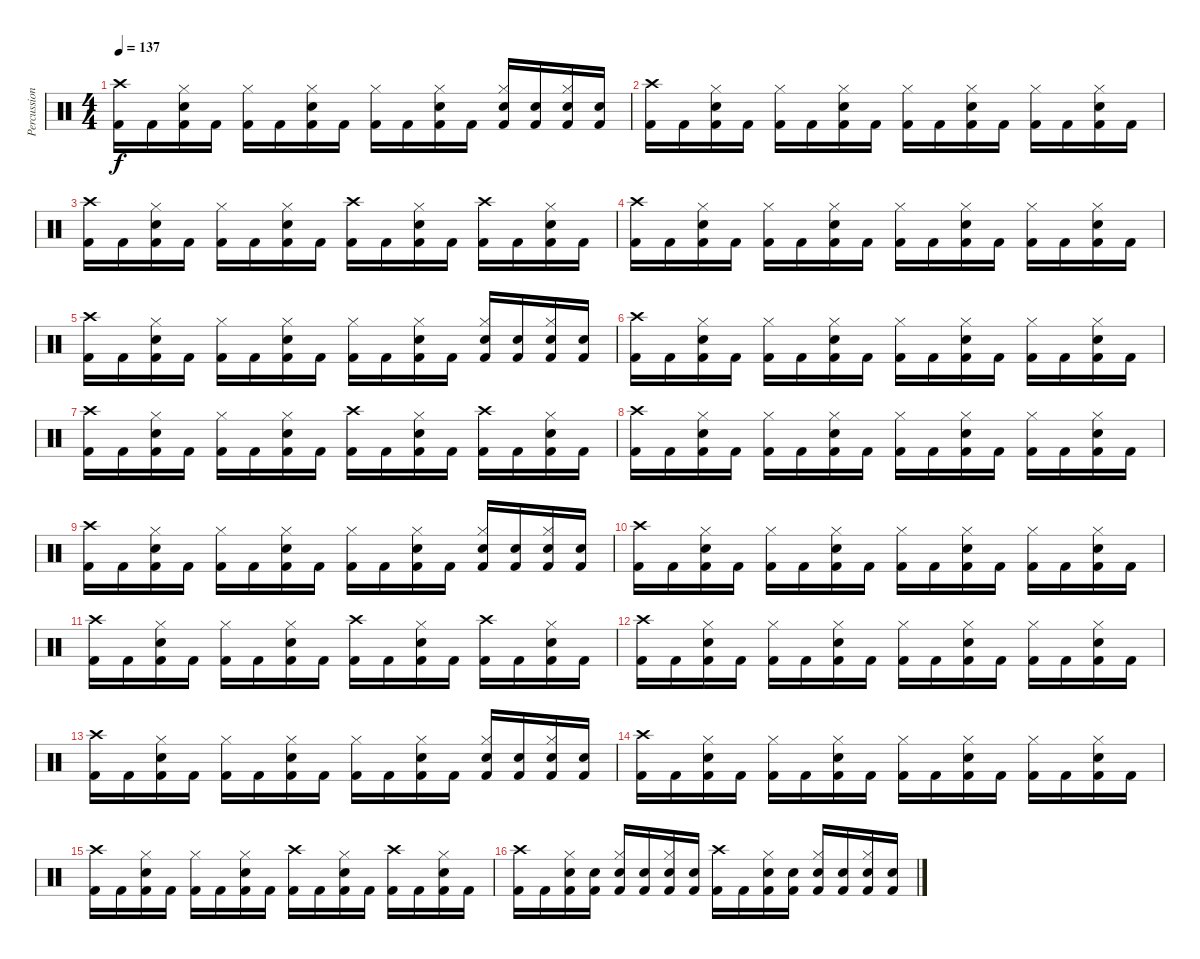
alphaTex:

\track ("Percussion" "Percussion") {instrument percussion}
\staff {score}
\articulation defaults
\ts (4 4)
\tempo 137
\clef neutral
\ks c
("Crash high (hit)" "Kick (hit) 2").16{dy f} "Kick (hit) 2".16 ("Hi-Hat (closed)" "Snare (hit) 2" "Kick (hit) 2").16 "Kick (hit) 2".16 ("Hi-Hat (closed)" "Kick (hit) 2").16 "Kick (hit) 2".16 ("Hi-Hat (closed)" "Snare (hit) 2" "Kick (hit) 2").16 "Kick (hit) 2".16 ("Hi-Hat (closed)" "Kick (hit) 2").16 "Kick (hit) 2".16 ("Hi-Hat (closed)" "Snare (hit) 2" "Kick (hit) 2").16 "Kick (hit) 2".16 ("Hi-Hat (closed)" "Snare (hit) 2" "Kick (hit) 2").16 ("Snare (hit) 2" "Kick (hit) 2").16 ("Hi-Hat (closed)" "Snare (hit) 2" "Kick (hit) 2").16 ("Snare (hit) 2" "Kick (hit) 2").16 |
("Crash high (hit)" "Kick (hit) 2").16 "Kick (hit) 2".16 ("Hi-Hat (closed)" "Snare (hit) 2" "Kick (hit) 2").16 "Kick (hit) 2".16 ("Hi-Hat (closed)" "Kick (hit) 2").16 "Kick (hit) 2".16 ("Hi-Hat (closed)" "Snare (hit) 2" "Kick (hit) 2").16 "Kick (hit) 2".16 ("Hi-Hat (closed)" "Kick (hit) 2").16 "Kick (hit) 2".16 ("Hi-Hat (closed)" "Snare (hit) 2" "Kick (hit) 2").16 "Kick (hit) 2".16 ("Hi-Hat (closed)" "Kick (hit) 2").16 "Kick (hit) 2".16 ("Hi-Hat (closed)" "Snare (hit) 2" "Kick (hit) 2").16 "Kick (hit) 2".16 |
("Crash high (hit)" "Kick (hit) 2").16 "Kick (hit) 2".16 ("Hi-Hat (closed)" "Snare (hit) 2" "Kick (hit) 2").16 "Kick (hit) 2".16 ("Hi-Hat (closed)" "Kick (hit) 2").16 "Kick (hit) 2".16 ("Hi-Hat (closed)" "Snare (hit) 2" "Kick (hit) 2").16 "Kick (hit) 2".16 ("Crash high (hit)" "Kick (hit) 2").16 "Kick (hit) 2".16 ("Hi-Hat (closed)" "Snare (hit) 2" "Kick (hit) 2").16 "Kick (hit) 2".16 ("Crash high (hit)" "Kick (hit) 2").16 "Kick (hit) 2".16 ("Hi-Hat (closed)" "Snare (hit) 2" "Kick (hit) 2").16 "Kick (hit) 2".16 |
("Crash high (hit)" "Kick (hit) 2").16 "Kick (hit) 2".16 ("Hi-Hat (closed)" "Snare (hit) 2" "Kick (hit) 2").16 "Kick (hit) 2".16 ("Hi-Hat (closed)" "Kick (hit) 2").16 "Kick (hit) 2".16 ("Hi-Hat (closed)" "Snare (hit) 2" "Kick (hit) 2").16 "Kick (hit) 2".16 ("Hi-Hat (closed)" "Kick (hit) 2").16 "Kick (hit) 2".16 ("Hi-Hat (closed)" "Snare (hit) 2" "Kick (hit) 2").16 "Kick (hit) 2".16 ("Hi-Hat (closed)" "Kick (hit) 2").16 "Kick (hit) 2".16 ("Hi-Hat (closed)" "Snare (hit) 2" "Kick (hit) 2").16 "Kick (hit) 2".16 |
("Crash high (hit)" "Kick (hit) 2").16 "Kick (hit) 2".16 ("Hi-Hat (closed)" "Snare (hit) 2" "Kick (hit) 2").16 "Kick (hit) 2".16 ("Hi-Hat (closed)" "Kick (hit) 2").16 "Kick (hit) 2".16 ("Hi-Hat (closed)" "Snare (hit) 2" "Kick (hit) 2").16 "Kick (hit) 2".16 ("Hi-Hat (closed)" "Kick (hit) 2").16 "Kick (hit) 2".16 ("Hi-Hat (closed)" "Snare (hit) 2" "Kick (hit) 2").16 "Kick (hit) 2".16 ("Hi-Hat (closed)" "Snare (hit) 2" "Kick (hit) 2").16 ("Snare (hit) 2" "Kick (hit) 2").16 ("Hi-Hat (closed)" "Snare (hit) 2" "Kick (hit) 2").16 ("Snare (hit) 2" "Kick (hit) 2").16 |
("Crash high (hit)" "Kick (hit) 2").16 "Kick (hit) 2".16 ("Hi-Hat (closed)" "Snare (hit) 2" "Kick (hit) 2").16 "Kick (hit) 2".16 ("Hi-Hat (closed)" "Kick (hit) 2").16 "Kick (hit) 2".16 ("Hi-Hat (closed)" "Snare (hit) 2" "Kick (hit) 2").16 "Kick (hit) 2".16 ("Hi-Hat (closed)" "Kick (hit) 2").16 "Kick (hit) 2".16 ("Hi-Hat (closed)" "Snare (hit) 2" "Kick (hit) 2").16 "Kick (hit) 2".16 ("Hi-Hat (closed)" "Kick (hit) 2").16 "Kick (hit) 2".16 ("Hi-Hat (closed)" "Snare (hit) 2" "Kick (hit) 2").16 "Kick (hit) 2".16 |
("Crash high (hit)" "Kick (hit) 2").16 "Kick (hit) 2".16 ("Hi-Hat (closed)" "Snare (hit) 2" "Kick (hit) 2").16 "Kick (hit) 2".16 ("Hi-Hat (closed)" "Kick (hit) 2").16 "Kick (hit) 2".16 ("Hi-Hat (closed)" "Snare (hit) 2" "Kick (hit) 2").16 "Kick (hit) 2".16 ("Crash high (hit)" "Kick (hit) 2").16 "Kick (hit) 2".16 ("Hi-Hat (closed)" "Snare (hit) 2" "Kick (hit) 2").16 "Kick (hit) 2".16 ("Crash high (hit)" "Kick (hit) 2").16 "Kick (hit) 2".16 ("Hi-Hat (closed)" "Snare (hit) 2" "Kick (hit) 2").16 "Kick (hit) 2".16 |
("Crash high (hit)" "Kick (hit) 2").16 "Kick (hit) 2".16 ("Hi-Hat (closed)" "Snare (hit) 2" "Kick (hit) 2").16 "Kick (hit) 2".16 ("Hi-Hat (closed)" "Kick (hit) 2").16 "Kick (hit) 2".16 ("Hi-Hat (closed)" "Snare (hit) 2" "Kick (hit) 2").16 "Kick (hit) 2".16 ("Hi-Hat (closed)" "Kick (hit) 2").16 "Kick (hit) 2".16 ("Hi-Hat (closed)" "Snare (hit) 2" "Kick (hit) 2").16 "Kick (hit) 2".16 ("Hi-Hat (closed)" "Kick (hit) 2").16 "Kick (hit) 2".16 ("Hi-Hat (closed)" "Snare (hit) 2" "Kick (hit) 2").16 "Kick (hit) 2".16 |
("Crash high (hit)" "Kick (hit) 2").16 "Kick (hit) 2".16 ("Hi-Hat (closed)" "Snare (hit) 2" "Kick (hit) 2").16 "Kick (hit) 2".16 ("Hi-Hat (closed)" "Kick (hit) 2").16 "Kick (hit) 2".16 ("Hi-Hat (closed)" "Snare (hit) 2" "Kick (hit) 2").16 "Kick (hit) 2".16 ("Hi-Hat (closed)" "Kick (hit) 2").16 "Kick (hit) 2".16 ("Hi-Hat (closed)" "Snare (hit) 2" "Kick (hit) 2").16 "Kick (hit) 2".16 ("Hi-Hat (closed)" "Snare (hit) 2" "Kick (hit) 2").16 ("Snare (hit) 2" "Kick (hit) 2").16 ("Hi-Hat (closed)" "Snare (hit) 2" "Kick (hit) 2").16 ("Snare (hit) 2" "Kick (hit) 2").16 |
("Crash high (hit)" "Kick (hit) 2").16 "Kick (hit) 2".16 ("Hi-Hat (closed)" "Snare (hit) 2" "Kick (hit) 2").16 "Kick (hit) 2".16 ("Hi-Hat (closed)" "Kick (hit) 2").16 "Kick (hit) 2".16 ("Hi-Hat (closed)" "Snare (hit) 2" "Kick (hit) 2").16 "Kick (hit) 2".16 ("Hi-Hat (closed)" "Kick (hit) 2").16 "Kick (hit) 2".16 ("Hi-Hat (closed)" "Snare (hit) 2" "Kick (hit) 2").16 "Kick (hit) 2".16 ("Hi-Hat (closed)" "Kick (hit) 2").16 "Kick (hit) 2".16 ("Hi-Hat (closed)" "Snare (hit) 2" "Kick (hit) 2").16 "Kick (hit) 2".16 |
("Crash high (hit)" "Kick (hit) 2").16 "Kick (hit) 2".16 ("Hi-Hat (closed)" "Snare (hit) 2" "Kick (hit) 2").16 "Kick (hit) 2".16 ("Hi-Hat (closed)" "Kick (hit) 2").16 "Kick (hit) 2".16 ("Hi-Hat (closed)" "Snare (hit) 2" "Kick (hit) 2").16 "Kick (hit) 2".16 ("Crash high (hit)" "Kick (hit) 2").16 "Kick (hit) 2".16 ("Hi-Hat (closed)" "Snare (hit) 2" "Kick (hit) 2").16 "Kick (hit) 2".16 ("Crash high (hit)" "Kick (hit) 2").16 "Kick (hit) 2".16 ("Hi-Hat (closed)" "Snare (hit) 2" "Kick (hit) 2").16 "Kick (hit) 2".16 |
("Crash high (hit)" "Kick (hit) 2").16 "Kick (hit) 2".16 ("Hi-Hat (closed)" "Snare (hit) 2" "Kick (hit) 2").16 "Kick (hit) 2".16 ("Hi-Hat (closed)" "Kick (hit) 2").16 "Kick (hit) 2".16 ("Hi-Hat (closed)" "Snare (hit) 2" "Kick (hit) 2").16 "Kick (hit) 2".16 ("Hi-Hat (closed)" "Kick (hit) 2").16 "Kick (hit) 2".16 ("Hi-Hat (closed)" "Snare (hit) 2" "Kick (hit) 2").16 "Kick (hit) 2".16 ("Hi-Hat (closed)" "Kick (hit) 2").16 "Kick (hit) 2".16 ("Hi-Hat (closed)" "Snare (hit) 2" "Kick (hit) 2").16 "Kick (hit) 2".16 |
("Crash high (hit)" "Kick (hit) 2").16 "Kick (hit) 2".16 ("Hi-Hat (closed)" "Snare (hit) 2" "Kick (hit) 2").16 "Kick (hit) 2".16 ("Hi-Hat (closed)" "Kick (hit) 2").16 "Kick (hit) 2".16 ("Hi-Hat (closed)" "Snare (hit) 2" "Kick (hit) 2").16 "Kick (hit) 2".16 ("Hi-Hat (closed)" "Kick (hit) 2").16 "Kick (hit) 2".16 ("Hi-Hat (closed)" "Snare (hit) 2" "Kick (hit) 2").16 "Kick (hit) 2".16 ("Hi-Hat (closed)" "Snare (hit) 2" "Kick (hit) 2").16 ("Snare (hit) 2" "Kick (hit) 2").16 ("Hi-Hat (closed)" "Snare (hit) 2" "Kick (hit) 2").16 ("Snare (hit) 2" "Kick (hit) 2").16 |
("Crash high (hit)" "Kick (hit) 2").16 "Kick (hit) 2".16 ("Hi-Hat (closed)" "Snare (hit) 2" "Kick (hit) 2").16 "Kick (hit) 2".16 ("Hi-Hat (closed)" "Kick (hit) 2").16 "Kick (hit) 2".16 ("Hi-Hat (closed)" "Snare (hit) 2" "Kick (hit) 2").16 "Kick (hit) 2".16 ("Hi-Hat (closed)" "Kick (hit) 2").16 "Kick (hit) 2".16 ("Hi-Hat (closed)" "Snare (hit) 2" "Kick (hit) 2").16 "Kick (hit) 2".16 ("Hi-Hat (closed)" "Kick (hit) 2").16 "Kick (hit) 2".16 ("Hi-Hat (closed)" "Snare (hit) 2" "Kick (hit) 2").16 "Kick (hit) 2".16 |
("Crash high (hit)" "Kick (hit) 2").16 "Kick (hit) 2".16 ("Hi-Hat (closed)" "Snare (hit) 2" "Kick (hit) 2").16 "Kick (hit) 2".16 ("Hi-Hat (closed)" "Kick (hit) 2").16 "Kick (hit) 2".16 ("Hi-Hat (closed)" "Snare (hit) 2" "Kick (hit) 2").16 "Kick (hit) 2".16 ("Crash high (hit)" "Kick (hit) 2").16 "Kick (hit) 2".16 ("Hi-Hat (closed)" "Snare (hit) 2" "Kick (hit) 2").16 "Kick (hit) 2".16 ("Crash high (hit)" "Kick (hit) 2").16 "Kick (hit) 2".16 ("Hi-Hat (closed)" "Snare (hit) 2" "Kick (hit) 2").16 "Kick (hit) 2".16 |
("Crash high (hit)" "Kick (hit) 2").16 "Kick (hit) 2".16 ("Hi-Hat (closed)" "Snare (hit) 2" "Kick (hit) 2").16 ("Snare (hit) 2" "Kick (hit) 2").16 ("Hi-Hat (closed)" "Snare (hit) 2" "Kick (hit) 2").16 ("Snare (hit) 2" "Kick (hit) 2").16 ("Hi-Hat (closed)" "Snare (hit) 2" "Kick (hit) 2").16 ("Snare (hit) 2" "Kick (hit) 2").16 ("Crash high (hit)" "Kick (hit) 2").16 "Kick (hit) 2".16 ("Hi-Hat (closed)" "Snare (hit) 2" "Kick (hit) 2").16 ("Snare (hit) 2" "Kick (hit) 2").16 ("Hi-Hat (closed)" "Snare (hit) 2" "Kick (hit) 2").16 ("Snare (hit) 2" "Kick (hit) 2").16 ("Hi-Hat (closed)" "Snare (hit) 2" "Kick (hit) 2").16 ("Snare (hit) 2" "Kick (hit) 2").16
